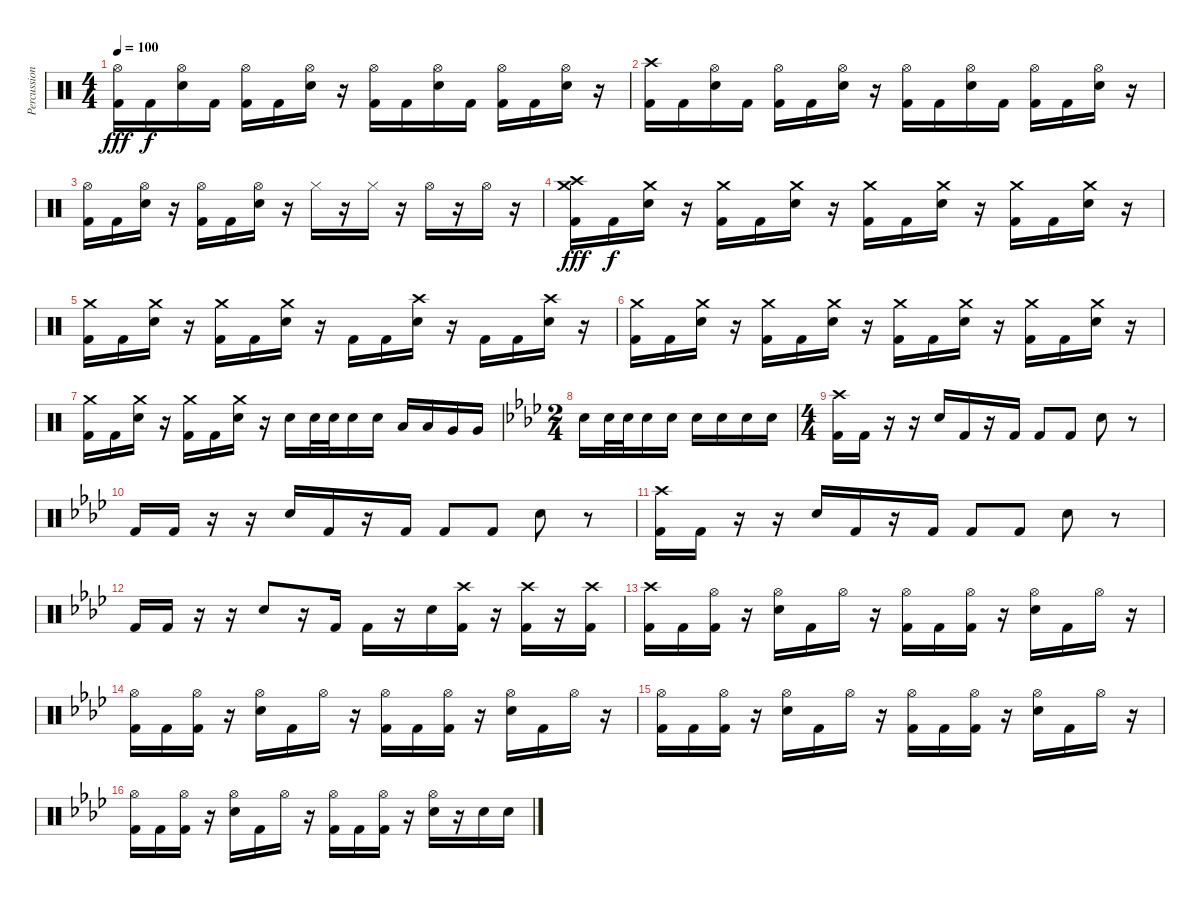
\track ("Percussion" "Percussion") {instrument percussion}
\staff {score}
\articulation defaults
\ts (4 4)
\tempo 100
\clef neutral
\ks c
("Hi-Hat (open)" "Kick (hit) 2").16{dy fff} "Kick (hit) 2".16{dy f} ("Hi-Hat (open)" "Electric Snare (hit)").16 "Kick (hit) 2".16 ("Hi-Hat (open)" "Kick (hit) 2").16 "Kick (hit) 2".16 ("Hi-Hat (open)" "Electric Snare (hit)").16 r.16 ("Hi-Hat (open)" "Kick (hit) 2").16 "Kick (hit) 2".16 ("Hi-Hat (open)" "Electric Snare (hit)").16 "Kick (hit) 2".16 ("Hi-Hat (open)" "Kick (hit) 2").16 "Kick (hit) 2".16 ("Hi-Hat (open)" "Electric Snare (hit)").16 r.16 |
("Crash high (hit)" "Kick (hit) 2").16 "Kick (hit) 2".16 ("Hi-Hat (open)" "Electric Snare (hit)").16 "Kick (hit) 2".16 ("Hi-Hat (open)" "Kick (hit) 2").16 "Kick (hit) 2".16 ("Hi-Hat (open)" "Electric Snare (hit)").16 r.16 ("Hi-Hat (open)" "Kick (hit) 2").16 "Kick (hit) 2".16 ("Hi-Hat (open)" "Electric Snare (hit)").16 "Kick (hit) 2".16 ("Hi-Hat (open)" "Kick (hit) 2").16 "Kick (hit) 2".16 ("Hi-Hat (open)" "Electric Snare (hit)").16 r.16 |
("Hi-Hat (open)" "Kick (hit) 2").16 "Kick (hit) 2".16 ("Hi-Hat (open)" "Electric Snare (hit)").16 r.16 ("Hi-Hat (open)" "Kick (hit) 2").16 "Kick (hit) 2".16 ("Hi-Hat (open)" "Electric Snare (hit)").16 r.16 "Hi-Hat (closed)".16 r.16 "Hi-Hat (closed)".16 r.16 "Hi-Hat (open)".16 r.16 "Hi-Hat (open)".16 r.16 |
("Crash high (hit)" "Crash medium (hit)" "Kick (hit) 2").16{dy fff} "Kick (hit) 2".16{dy f} ("Crash medium (hit)" "Snare (hit) 2").16 r.16 ("Crash medium (hit)" "Kick (hit) 2").16 "Kick (hit) 2".16 ("Crash medium (hit)" "Snare (hit) 2").16 r.16 ("Crash medium (hit)" "Kick (hit) 2").16 "Kick (hit) 2".16 ("Crash medium (hit)" "Snare (hit) 2").16 r.16 ("Crash medium (hit)" "Kick (hit) 2").16 "Kick (hit) 2".16 ("Crash medium (hit)" "Snare (hit) 2").16 r.16 |
("Crash medium (hit)" "Kick (hit) 2").16 "Kick (hit) 2".16 ("Crash medium (hit)" "Snare (hit) 2").16 r.16 ("Crash medium (hit)" "Kick (hit) 2").16 "Kick (hit) 2".16 ("Crash medium (hit)" "Snare (hit) 2").16 r.16 "Kick (hit) 2".16 "Kick (hit) 2".16 ("Crash high (hit)" "Snare (hit) 2").16 r.16 "Kick (hit) 2".16 "Kick (hit) 2".16 ("Crash high (hit)" "Snare (hit) 2").16 r.16 |
("Crash medium (hit)" "Kick (hit) 2").16 "Kick (hit) 2".16 ("Crash medium (hit)" "Snare (hit) 2").16 r.16 ("Crash medium (hit)" "Kick (hit) 2").16 "Kick (hit) 2".16 ("Crash medium (hit)" "Snare (hit) 2").16 r.16 ("Crash medium (hit)" "Kick (hit) 2").16 "Kick (hit) 2".16 ("Crash medium (hit)" "Snare (hit) 2").16 r.16 ("Crash medium (hit)" "Kick (hit) 2").16 "Kick (hit) 2".16 ("Crash medium (hit)" "Snare (hit) 2").16 r.16 |
("Crash medium (hit)" "Kick (hit) 2").16 "Kick (hit) 2".16 ("Crash medium (hit)" "Snare (hit) 2").16 r.16 ("Crash medium (hit)" "Kick (hit) 2").16 "Kick (hit) 2".16 ("Crash medium (hit)" "Snare (hit) 2").16 r.16 "Snare (hit) 2".16 "Snare (hit) 2".32 "Snare (hit) 2".32 "Snare (hit) 2".16 "Snare (hit) 2".16 "Low Tom (hit)".16 "Low Tom (hit)".16 "Very Low Tom (hit)".16 "Very Low Tom (hit)".16 |
\ts (2 4)
\ks ab "Snare (hit) 2".16 "Snare (hit) 2".32 "Snare (hit) 2".32 "Snare (hit) 2".16 "Snare (hit) 2".16 "Snare (hit) 2".16 "Snare (hit) 2".16 "Snare (hit) 2".16 "Snare (hit) 2".16
|
\ts (4 4)
("Crash high (hit)" "Kick (hit) 2").16 "Kick (hit) 2".16 r.16 r.16 "Snare (hit) 2".16 "Kick (hit) 2".16 r.16 "Kick (hit) 2".16 "Kick (hit) 2".8 "Kick (hit) 2".8 "Snare (hit) 2".8 r.8 |
"Kick (hit) 2".16 "Kick (hit) 2".16 r.16 r.16 "Snare (hit) 2".16 "Kick (hit) 2".16 r.16 "Kick (hit) 2".16 "Kick (hit) 2".8 "Kick (hit) 2".8 "Snare (hit) 2".8 r.8 |
("Crash high (hit)" "Kick (hit) 2").16 "Kick (hit) 2".16 r.16 r.16 "Snare (hit) 2".16 "Kick (hit) 2".16 r.16 "Kick (hit) 2".16 "Kick (hit) 2".8 "Kick (hit) 2".8 "Snare (hit) 2".8 r.8 |
"Kick (hit) 2".16 "Kick (hit) 2".16 r.16 r.16 "Snare (hit) 2".8 r.16 "Kick (hit) 2".16 "Kick (hit) 2".16 r.16 "Snare (hit) 2".16 ("Crash high (hit)" "Kick (hit) 2").16 r.16 ("Crash high (hit)" "Kick (hit) 2").16 r.16 ("Crash high (hit)" "Kick (hit) 2").16 |
("Crash high (hit)" "Kick (hit) 2").16 "Kick (hit) 2".16 ("Hi-Hat (open)" "Kick (hit) 2").16 r.16 ("Hi-Hat (open)" "Snare (hit) 2").16 "Kick (hit) 2".16 "Hi-Hat (open)".16 r.16 ("Hi-Hat (open)" "Kick (hit) 2").16 "Kick (hit) 2".16 ("Hi-Hat (open)" "Kick (hit) 2").16 r.16 ("Hi-Hat (open)" "Snare (hit) 2").16 "Kick (hit) 2".16 "Hi-Hat (open)".16 r.16 |
("Hi-Hat (open)" "Kick (hit) 2").16 "Kick (hit) 2".16 ("Hi-Hat (open)" "Kick (hit) 2").16 r.16 ("Hi-Hat (open)" "Snare (hit) 2").16 "Kick (hit) 2".16 "Hi-Hat (open)".16 r.16 ("Hi-Hat (open)" "Kick (hit) 2").16 "Kick (hit) 2".16 ("Hi-Hat (open)" "Kick (hit) 2").16 r.16 ("Hi-Hat (open)" "Snare (hit) 2").16 "Kick (hit) 2".16 "Hi-Hat (open)".16 r.16 |
("Hi-Hat (open)" "Kick (hit) 2").16 "Kick (hit) 2".16 ("Hi-Hat (open)" "Kick (hit) 2").16 r.16 ("Hi-Hat (open)" "Snare (hit) 2").16 "Kick (hit) 2".16 "Hi-Hat (open)".16 r.16 ("Hi-Hat (open)" "Kick (hit) 2").16 "Kick (hit) 2".16 ("Hi-Hat (open)" "Kick (hit) 2").16 r.16 ("Hi-Hat (open)" "Snare (hit) 2").16 "Kick (hit) 2".16 "Hi-Hat (open)".16 r.16 |
("Hi-Hat (open)" "Kick (hit) 2").16 "Kick (hit) 2".16 ("Hi-Hat (open)" "Kick (hit) 2").16 r.16 ("Hi-Hat (open)" "Snare (hit) 2").16 "Kick (hit) 2".16 "Hi-Hat (open)".16 r.16 ("Hi-Hat (open)" "Kick (hit) 2").16 "Kick (hit) 2".16 ("Hi-Hat (open)" "Kick (hit) 2").16 r.16 ("Hi-Hat (open)" "Snare (hit) 2").16 r.16 "Snare (hit) 2".16 "Snare (hit) 2".16
